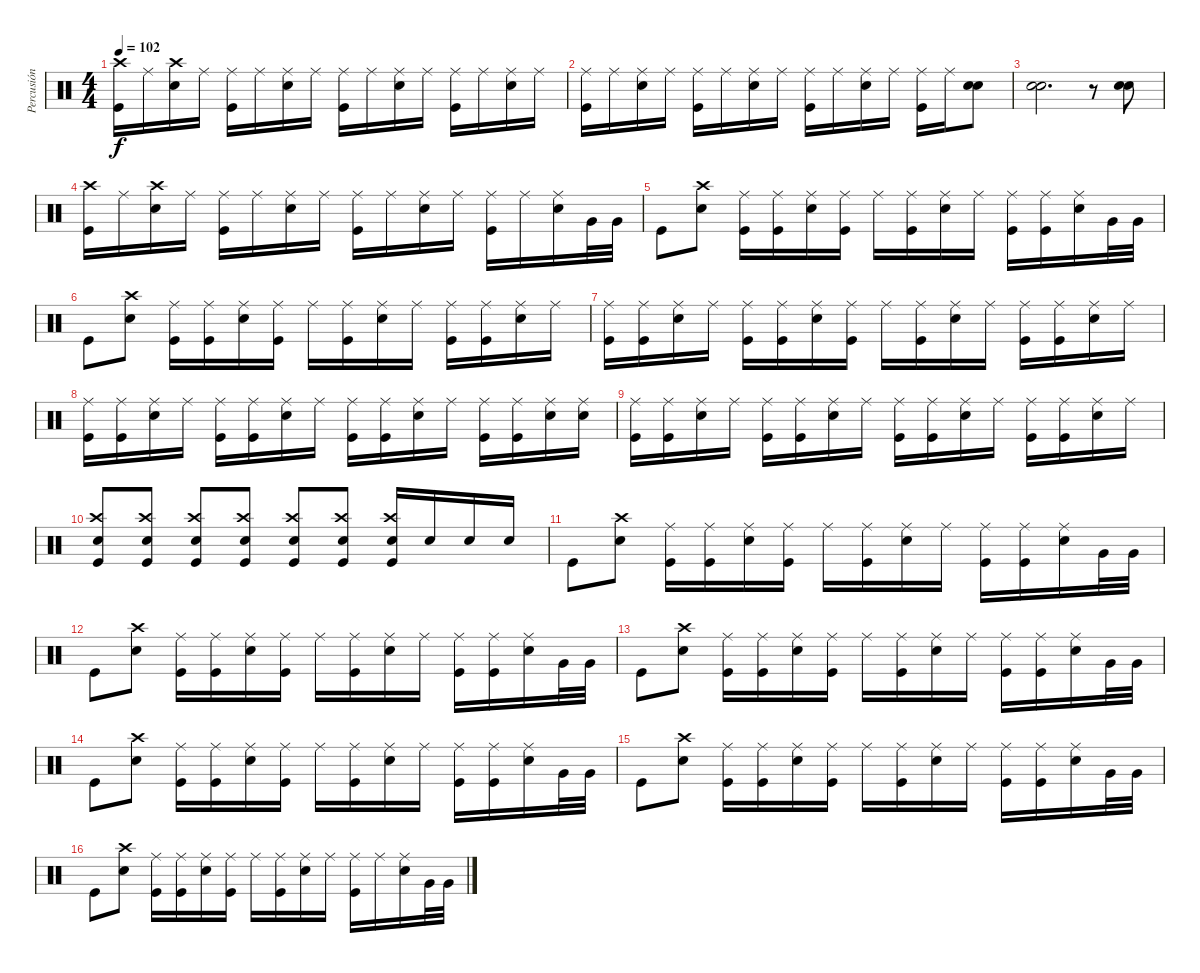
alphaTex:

\track ("Percusión" "Percusión") {instrument percussion}
\staff {score}
\articulation defaults
\ts (4 4)
\tempo 102
\clef neutral
\ks c
("Kick (hit)" "Crash high (hit)").16{dy f} "Ride (middle)".16 ("Snare (hit) 2" "Crash high (hit)").16 "Ride (middle)".16 ("Kick (hit)" "Ride (middle)").16 "Ride (middle)".16 ("Snare (hit) 2" "Ride (middle)").16 "Ride (middle)".16 ("Kick (hit)" "Ride (middle)").16 "Ride (middle)".16 ("Snare (hit) 2" "Ride (middle)").16 "Ride (middle)".16 ("Kick (hit)" "Ride (middle)").16 "Ride (middle)".16 ("Snare (hit) 2" "Ride (middle)").16 "Ride (middle)".16 |
("Kick (hit)" "Ride (middle)").16 "Ride (middle)".16 ("Snare (hit) 2" "Ride (middle)").16 "Ride (middle)".16 ("Kick (hit)" "Ride (middle)").16 "Ride (middle)".16 ("Snare (hit) 2" "Ride (middle)").16 "Ride (middle)".16 ("Kick (hit)" "Ride (middle)").16 "Ride (middle)".16 ("Snare (hit) 2" "Ride (middle)").16 "Ride (middle)".16 ("Kick (hit)" "Ride (middle)").16 "Ride (middle)".16 ("Snare (hit) 2" "Snare (hit) 2").8 |
("Snare (hit) 2" "Snare (hit) 2").2{d} r.8 ("Snare (hit) 2" "Snare (hit) 2").8 |
("Kick (hit)" "Crash high (hit)").16 "Ride (middle)".16 ("Snare (hit) 2" "Crash high (hit)").16 "Ride (middle)".16 ("Kick (hit)" "Ride (middle)").16 "Ride (middle)".16 ("Snare (hit) 2" "Ride (middle)").16 "Ride (middle)".16 ("Kick (hit)" "Ride (middle)").16 "Ride (middle)".16 ("Snare (hit) 2" "Ride (middle)").16 "Ride (middle)".16 ("Kick (hit)" "Ride (middle)").16 "Ride (middle)".16 ("Snare (hit) 2" "Ride (middle)").16 "Very Low Tom (hit)".32 "Very Low Tom (hit)".32 |
"Kick (hit)".8 ("Snare (hit) 2" "Crash high (hit)").8 ("Kick (hit)" "Ride (middle)").16 ("Kick (hit)" "Ride (middle)").16 ("Snare (hit) 2" "Ride (middle)").16 ("Kick (hit)" "Ride (middle)").16 "Ride (middle)".16 ("Kick (hit)" "Ride (middle)").16 ("Snare (hit) 2" "Ride (middle)").16 "Ride (middle)".16 ("Kick (hit)" "Ride (middle)").16 ("Kick (hit)" "Ride (middle)").16 ("Snare (hit) 2" "Ride (middle)").16 "Very Low Tom (hit)".32 "Very Low Tom (hit)".32 |
"Kick (hit)".8 ("Snare (hit) 2" "Crash high (hit)").8 ("Kick (hit)" "Ride (middle)").16 ("Kick (hit)" "Ride (middle)").16 ("Snare (hit) 2" "Ride (middle)").16 ("Kick (hit)" "Ride (middle)").16 "Ride (middle)".16 ("Kick (hit)" "Ride (middle)").16 ("Snare (hit) 2" "Ride (middle)").16 "Ride (middle)".16 ("Kick (hit)" "Ride (middle)").16 ("Kick (hit)" "Ride (middle)").16 ("Snare (hit) 2" "Ride (middle)").16 "Ride (middle)".16 |
("Kick (hit)" "Ride (middle)").16 ("Kick (hit)" "Ride (middle)").16 ("Snare (hit) 2" "Ride (middle)").16 "Ride (middle)".16 ("Kick (hit)" "Ride (middle)").16 ("Kick (hit)" "Ride (middle)").16 ("Snare (hit) 2" "Ride (middle)").16 ("Kick (hit)" "Ride (middle)").16 "Ride (middle)".16 ("Kick (hit)" "Ride (middle)").16 ("Snare (hit) 2" "Ride (middle)").16 "Ride (middle)".16 ("Kick (hit)" "Ride (middle)").16 ("Kick (hit)" "Ride (middle)").16 ("Snare (hit) 2" "Ride (middle)").16 "Ride (middle)".16 |
("Kick (hit)" "Ride (middle)").16 ("Kick (hit)" "Ride (middle)").16 ("Snare (hit) 2" "Ride (middle)").16 "Ride (middle)".16 ("Kick (hit)" "Ride (middle)").16 ("Kick (hit)" "Ride (middle)").16 ("Snare (hit) 2" "Ride (middle)").16 "Ride (middle)".16 ("Kick (hit)" "Ride (middle)").16 ("Kick (hit)" "Ride (middle)").16 ("Snare (hit) 2" "Ride (middle)").16 "Ride (middle)".16 ("Kick (hit)" "Ride (middle)").16 ("Kick (hit)" "Ride (middle)").16 ("Snare (hit) 2" "Ride (middle)").16 ("Snare (hit) 2" "Ride (middle)").16 |
("Kick (hit)" "Ride (middle)").16 ("Kick (hit)" "Ride (middle)").16 ("Snare (hit) 2" "Ride (middle)").16 "Ride (middle)".16 ("Kick (hit)" "Ride (middle)").16 ("Kick (hit)" "Ride (middle)").16 ("Snare (hit) 2" "Ride (middle)").16 "Ride (middle)".16 ("Kick (hit)" "Ride (middle)").16 ("Kick (hit)" "Ride (middle)").16 ("Snare (hit) 2" "Ride (middle)").16 "Ride (middle)".16 ("Kick (hit)" "Ride (middle)").16 ("Kick (hit)" "Ride (middle)").16 ("Snare (hit) 2" "Ride (middle)").16 "Ride (middle)".16 |
("Snare (hit) 2" "Kick (hit)" "Crash high (hit)").8 ("Snare (hit) 2" "Kick (hit)" "Crash high (hit)").8 ("Snare (hit) 2" "Kick (hit)" "Crash high (hit)").8 ("Snare (hit) 2" "Kick (hit)" "Crash high (hit)").8 ("Snare (hit) 2" "Kick (hit)" "Crash high (hit)").8 ("Snare (hit) 2" "Kick (hit)" "Crash high (hit)").8 ("Snare (hit) 2" "Kick (hit)" "Crash high (hit)").16 "Snare (hit) 2".16 "Snare (hit) 2".16 "Snare (hit) 2".16 |
"Kick (hit)".8 ("Snare (hit) 2" "Crash high (hit)").8 ("Kick (hit)" "Ride (middle)").16 ("Kick (hit)" "Ride (middle)").16 ("Snare (hit) 2" "Ride (middle)").16 ("Kick (hit)" "Ride (middle)").16 "Ride (middle)".16 ("Kick (hit)" "Ride (middle)").16 ("Snare (hit) 2" "Ride (middle)").16 "Ride (middle)".16 ("Kick (hit)" "Ride (middle)").16 ("Kick (hit)" "Ride (middle)").16 ("Snare (hit) 2" "Ride (middle)").16 "Very Low Tom (hit)".32 "Very Low Tom (hit)".32 |
"Kick (hit)".8 ("Snare (hit) 2" "Crash high (hit)").8 ("Kick (hit)" "Ride (middle)").16 ("Kick (hit)" "Ride (middle)").16 ("Snare (hit) 2" "Ride (middle)").16 ("Kick (hit)" "Ride (middle)").16 "Ride (middle)".16 ("Kick (hit)" "Ride (middle)").16 ("Snare (hit) 2" "Ride (middle)").16 "Ride (middle)".16 ("Kick (hit)" "Ride (middle)").16 ("Kick (hit)" "Ride (middle)").16 ("Snare (hit) 2" "Ride (middle)").16 "Very Low Tom (hit)".32 "Very Low Tom (hit)".32 |
"Kick (hit)".8 ("Snare (hit) 2" "Crash high (hit)").8 ("Kick (hit)" "Ride (middle)").16 ("Kick (hit)" "Ride (middle)").16 ("Snare (hit) 2" "Ride (middle)").16 ("Kick (hit)" "Ride (middle)").16 "Ride (middle)".16 ("Kick (hit)" "Ride (middle)").16 ("Snare (hit) 2" "Ride (middle)").16 "Ride (middle)".16 ("Kick (hit)" "Ride (middle)").16 ("Kick (hit)" "Ride (middle)").16 ("Snare (hit) 2" "Ride (middle)").16 "Very Low Tom (hit)".32 "Very Low Tom (hit)".32 |
"Kick (hit)".8 ("Snare (hit) 2" "Crash high (hit)").8 ("Kick (hit)" "Ride (middle)").16 ("Kick (hit)" "Ride (middle)").16 ("Snare (hit) 2" "Ride (middle)").16 ("Kick (hit)" "Ride (middle)").16 "Ride (middle)".16 ("Kick (hit)" "Ride (middle)").16 ("Snare (hit) 2" "Ride (middle)").16 "Ride (middle)".16 ("Kick (hit)" "Ride (middle)").16 ("Kick (hit)" "Ride (middle)").16 ("Snare (hit) 2" "Ride (middle)").16 "Very Low Tom (hit)".32 "Very Low Tom (hit)".32 |
"Kick (hit)".8 ("Snare (hit) 2" "Crash high (hit)").8 ("Kick (hit)" "Ride (middle)").16 ("Kick (hit)" "Ride (middle)").16 ("Snare (hit) 2" "Ride (middle)").16 ("Kick (hit)" "Ride (middle)").16 "Ride (middle)".16 ("Kick (hit)" "Ride (middle)").16 ("Snare (hit) 2" "Ride (middle)").16 "Ride (middle)".16 ("Kick (hit)" "Ride (middle)").16 ("Kick (hit)" "Ride (middle)").16 ("Snare (hit) 2" "Ride (middle)").16 "Very Low Tom (hit)".32 "Very Low Tom (hit)".32 |
"Kick (hit)".8 ("Snare (hit) 2" "Crash high (hit)").8 ("Kick (hit)" "Ride (middle)").16 ("Kick (hit)" "Ride (middle)").16 ("Snare (hit) 2" "Ride (middle)").16 ("Kick (hit)" "Ride (middle)").16 "Ride (middle)".16 ("Kick (hit)" "Ride (middle)").16 ("Snare (hit) 2" "Ride (middle)").16 "Ride (middle)".16 ("Kick (hit)" "Ride (middle)").16 "Ride (middle)".16 ("Snare (hit) 2" "Ride (middle)").16 "Very Low Tom (hit)".32 "Very Low Tom (hit)".32
